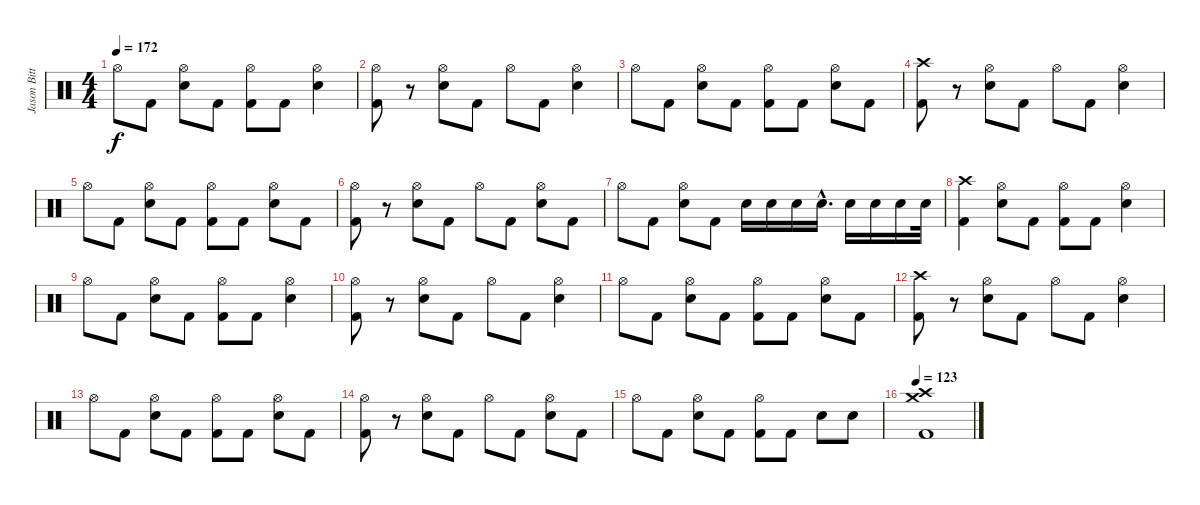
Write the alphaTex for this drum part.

\track ("Jason Bittner" "Jason Bitt") {instrument percussion}
\staff {score}
\articulation defaults
\ts (4 4)
\tempo 172
\clef neutral
\ks c "Hi-Hat (open)".8{dy f} "Kick (hit) 2".8
("Hi-Hat (open)" "Electric Snare (hit)").8 "Kick (hit) 2".8 ("Hi-Hat (open)" "Kick (hit) 2").8 "Kick (hit) 2".8 ("Hi-Hat (open)" "Electric Snare (hit)").4 |
("Hi-Hat (open)" "Kick (hit) 2").8 r.8 ("Hi-Hat (open)" "Electric Snare (hit)").8 "Kick (hit) 2".8 "Hi-Hat (open)".8 "Kick (hit) 2".8 ("Hi-Hat (open)" "Electric Snare (hit)").4 |
"Hi-Hat (open)".8 "Kick (hit) 2".8 ("Hi-Hat (open)" "Electric Snare (hit)").8 "Kick (hit) 2".8 ("Hi-Hat (open)" "Kick (hit) 2").8 "Kick (hit) 2".8 ("Hi-Hat (open)" "Electric Snare (hit)").8 "Kick (hit) 2".8 |
("Crash high (hit)" "Kick (hit) 2").8 r.8 ("Hi-Hat (open)" "Electric Snare (hit)").8 "Kick (hit) 2".8 "Hi-Hat (open)".8 "Kick (hit) 2".8 ("Hi-Hat (open)" "Electric Snare (hit)").4 |
"Hi-Hat (open)".8 "Kick (hit) 2".8 ("Hi-Hat (open)" "Electric Snare (hit)").8 "Kick (hit) 2".8 ("Hi-Hat (open)" "Kick (hit) 2").8 "Kick (hit) 2".8 ("Hi-Hat (open)" "Electric Snare (hit)").8 "Kick (hit) 2".8 |
("Hi-Hat (open)" "Kick (hit) 2").8 r.8 ("Hi-Hat (open)" "Electric Snare (hit)").8 "Kick (hit) 2".8 "Hi-Hat (open)".8 "Kick (hit) 2".8 ("Hi-Hat (open)" "Electric Snare (hit)").8 "Kick (hit) 2".8 |
"Hi-Hat (open)".8 "Kick (hit) 2".8 ("Hi-Hat (open)" "Electric Snare (hit)").8 "Kick (hit) 2".8 "Electric Snare (hit)".16 "Electric Snare (hit)".16 "Electric Snare (hit)".16 "Electric Snare (hit)"{hac}.16{d} "Electric Snare (hit)".16 "Electric Snare (hit)".16 "Electric Snare (hit)".16 "Electric Snare (hit)".32 |
("Crash high (hit)" "Kick (hit) 2").4 ("Hi-Hat (open)" "Electric Snare (hit)").8 "Kick (hit) 2".8 ("Hi-Hat (open)" "Kick (hit) 2").8 "Kick (hit) 2".8 ("Hi-Hat (open)" "Electric Snare (hit)").4 |
"Hi-Hat (open)".8 "Kick (hit) 2".8 ("Hi-Hat (open)" "Electric Snare (hit)").8 "Kick (hit) 2".8 ("Hi-Hat (open)" "Kick (hit) 2").8 "Kick (hit) 2".8 ("Hi-Hat (open)" "Electric Snare (hit)").4 |
("Hi-Hat (open)" "Kick (hit) 2").8 r.8 ("Hi-Hat (open)" "Electric Snare (hit)").8 "Kick (hit) 2".8 "Hi-Hat (open)".8 "Kick (hit) 2".8 ("Hi-Hat (open)" "Electric Snare (hit)").4 |
"Hi-Hat (open)".8 "Kick (hit) 2".8 ("Hi-Hat (open)" "Electric Snare (hit)").8 "Kick (hit) 2".8 ("Hi-Hat (open)" "Kick (hit) 2").8 "Kick (hit) 2".8 ("Hi-Hat (open)" "Electric Snare (hit)").8 "Kick (hit) 2".8 |
("Crash high (hit)" "Kick (hit) 2").8 r.8 ("Hi-Hat (open)" "Electric Snare (hit)").8 "Kick (hit) 2".8 "Hi-Hat (open)".8 "Kick (hit) 2".8 ("Hi-Hat (open)" "Electric Snare (hit)").4 |
"Hi-Hat (open)".8 "Kick (hit) 2".8 ("Hi-Hat (open)" "Electric Snare (hit)").8 "Kick (hit) 2".8 ("Hi-Hat (open)" "Kick (hit) 2").8 "Kick (hit) 2".8 ("Hi-Hat (open)" "Electric Snare (hit)").8 "Kick (hit) 2".8 |
("Hi-Hat (open)" "Kick (hit) 2").8 r.8 ("Hi-Hat (open)" "Electric Snare (hit)").8 "Kick (hit) 2".8 "Hi-Hat (open)".8 "Kick (hit) 2".8 ("Hi-Hat (open)" "Electric Snare (hit)").8 "Kick (hit) 2".8 |
"Hi-Hat (open)".8 "Kick (hit) 2".8 ("Hi-Hat (open)" "Electric Snare (hit)").8 "Kick (hit) 2".8 ("Hi-Hat (open)" "Kick (hit) 2").8 "Kick (hit) 2".8 "Electric Snare (hit)".8 "Electric Snare (hit)".8 |
\tempo 123
("Crash medium (hit)" "Crash high (hit)" "Kick (hit) 2").1
